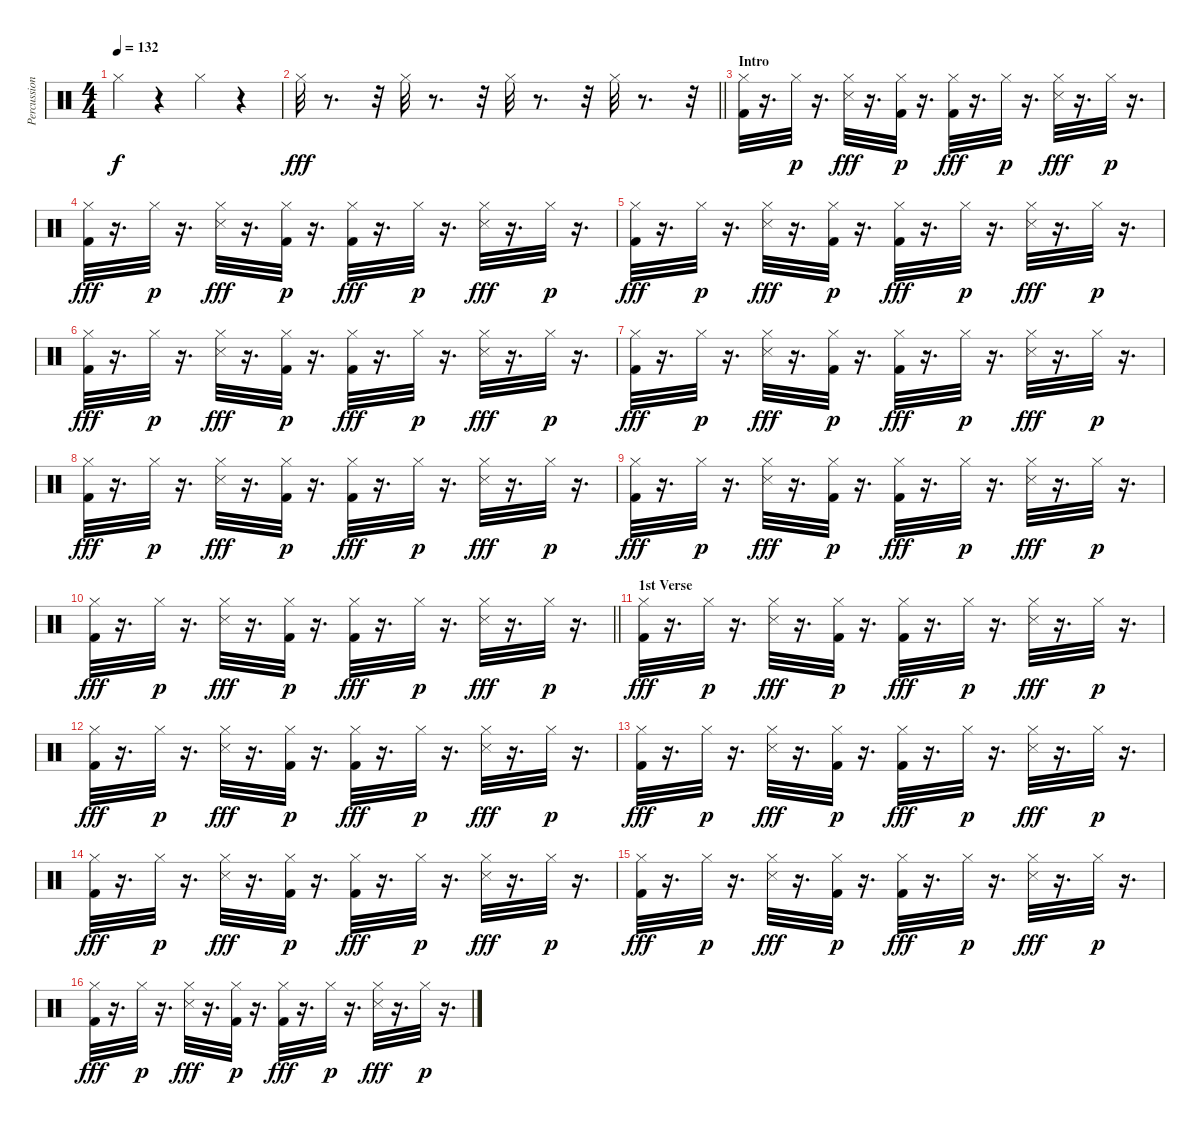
\track ("Percussion" "Percussion") {instrument percussion}
\staff {score}
\articulation defaults
\ts (4 4)
\tempo 132
\clef neutral
\ks c "Hi-Hat (closed)".4{dy f}
r.4 "Hi-Hat (closed)".4 r.4 |
\barLineRight lightlight "Hi-Hat (closed)".32{dy fff}
r.8{d} r.32 "Hi-Hat (closed)".32 r.8{d} r.32 "Hi-Hat (closed)".32 r.8{d} r.32 "Hi-Hat (closed)".32 r.8{d} r.32 |
\section ("" "Intro")
("Kick (hit) 2" "Hi-Hat (closed)").32 r.16{d} "Hi-Hat (closed)".32{dy p} r.16{d} ("Hi-Hat (closed)" "Snare (side stick) 3").32{dy fff} r.16{d} ("Kick (hit) 2" "Hi-Hat (closed)").32{dy p} r.16{d} ("Kick (hit) 2" "Hi-Hat (closed)").32{dy fff} r.16{d} "Hi-Hat (closed)".32{dy p} r.16{d} ("Snare (side stick) 3" "Hi-Hat (closed)").32{dy fff} r.16{d} "Hi-Hat (closed)".32{dy p} r.16{d} |
("Kick (hit) 2" "Hi-Hat (closed)").32{dy fff} r.16{d} "Hi-Hat (closed)".32{dy p} r.16{d} ("Hi-Hat (closed)" "Snare (side stick) 3").32{dy fff} r.16{d} ("Kick (hit) 2" "Hi-Hat (closed)").32{dy p} r.16{d} ("Kick (hit) 2" "Hi-Hat (closed)").32{dy fff} r.16{d} "Hi-Hat (closed)".32{dy p} r.16{d} ("Snare (side stick) 3" "Hi-Hat (closed)").32{dy fff} r.16{d} "Hi-Hat (closed)".32{dy p} r.16{d} |
("Kick (hit) 2" "Hi-Hat (closed)").32{dy fff} r.16{d} "Hi-Hat (closed)".32{dy p} r.16{d} ("Snare (side stick) 3" "Hi-Hat (closed)").32{dy fff} r.16{d} ("Kick (hit) 2" "Hi-Hat (closed)").32{dy p} r.16{d} ("Kick (hit) 2" "Hi-Hat (closed)").32{dy fff} r.16{d} "Hi-Hat (closed)".32{dy p} r.16{d} ("Hi-Hat (closed)" "Snare (side stick) 3").32{dy fff} r.16{d} "Hi-Hat (closed)".32{dy p} r.16{d} |
("Kick (hit) 2" "Hi-Hat (closed)").32{dy fff} r.16{d} "Hi-Hat (closed)".32{dy p} r.16{d} ("Snare (side stick) 3" "Hi-Hat (closed)").32{dy fff} r.16{d} ("Kick (hit) 2" "Hi-Hat (closed)").32{dy p} r.16{d} ("Kick (hit) 2" "Hi-Hat (closed)").32{dy fff} r.16{d} "Hi-Hat (closed)".32{dy p} r.16{d} ("Snare (side stick) 3" "Hi-Hat (closed)").32{dy fff} r.16{d} "Hi-Hat (closed)".32{dy p} r.16{d} |
("Kick (hit) 2" "Hi-Hat (closed)").32{dy fff} r.16{d} "Hi-Hat (closed)".32{dy p} r.16{d} ("Hi-Hat (closed)" "Snare (side stick) 3").32{dy fff} r.16{d} ("Kick (hit) 2" "Hi-Hat (closed)").32{dy p} r.16{d} ("Kick (hit) 2" "Hi-Hat (closed)").32{dy fff} r.16{d} "Hi-Hat (closed)".32{dy p} r.16{d} ("Hi-Hat (closed)" "Snare (side stick) 3").32{dy fff} r.16{d} "Hi-Hat (closed)".32{dy p} r.16{d} |
("Kick (hit) 2" "Hi-Hat (closed)").32{dy fff} r.16{d} "Hi-Hat (closed)".32{dy p} r.16{d} ("Snare (side stick) 3" "Hi-Hat (closed)").32{dy fff} r.16{d} ("Kick (hit) 2" "Hi-Hat (closed)").32{dy p} r.16{d} ("Kick (hit) 2" "Hi-Hat (closed)").32{dy fff} r.16{d} "Hi-Hat (closed)".32{dy p} r.16{d} ("Hi-Hat (closed)" "Snare (side stick) 3").32{dy fff} r.16{d} "Hi-Hat (closed)".32{dy p} r.16{d} |
("Kick (hit) 2" "Hi-Hat (closed)").32{dy fff} r.16{d} "Hi-Hat (closed)".32{dy p} r.16{d} ("Hi-Hat (closed)" "Snare (side stick) 3").32{dy fff} r.16{d} ("Kick (hit) 2" "Hi-Hat (closed)").32{dy p} r.16{d} ("Kick (hit) 2" "Hi-Hat (closed)").32{dy fff} r.16{d} "Hi-Hat (closed)".32{dy p} r.16{d} ("Hi-Hat (closed)" "Snare (side stick) 3").32{dy fff} r.16{d} "Hi-Hat (closed)".32{dy p} r.16{d} |
\barLineRight lightlight
("Kick (hit) 2" "Hi-Hat (closed)").32{dy fff} r.16{d} "Hi-Hat (closed)".32{dy p} r.16{d} ("Snare (side stick) 3" "Hi-Hat (closed)").32{dy fff} r.16{d} ("Kick (hit) 2" "Hi-Hat (closed)").32{dy p} r.16{d} ("Kick (hit) 2" "Hi-Hat (closed)").32{dy fff} r.16{d} "Hi-Hat (closed)".32{dy p} r.16{d} ("Hi-Hat (closed)" "Snare (side stick) 3").32{dy fff} r.16{d} "Hi-Hat (closed)".32{dy p} r.16{d} |
\section ("" "1st Verse")
("Kick (hit) 2" "Hi-Hat (closed)").32{dy fff} r.16{d} "Hi-Hat (closed)".32{dy p} r.16{d} ("Snare (side stick) 3" "Hi-Hat (closed)").32{dy fff} r.16{d} ("Kick (hit) 2" "Hi-Hat (closed)").32{dy p} r.16{d} ("Kick (hit) 2" "Hi-Hat (closed)").32{dy fff} r.16{d} "Hi-Hat (closed)".32{dy p} r.16{d} ("Snare (side stick) 3" "Hi-Hat (closed)").32{dy fff} r.16{d} "Hi-Hat (closed)".32{dy p} r.16{d} |
("Kick (hit) 2" "Hi-Hat (closed)").32{dy fff} r.16{d} "Hi-Hat (closed)".32{dy p} r.16{d} ("Snare (side stick) 3" "Hi-Hat (closed)").32{dy fff} r.16{d} ("Kick (hit) 2" "Hi-Hat (closed)").32{dy p} r.16{d} ("Kick (hit) 2" "Hi-Hat (closed)").32{dy fff} r.16{d} "Hi-Hat (closed)".32{dy p} r.16{d} ("Snare (side stick) 3" "Hi-Hat (closed)").32{dy fff} r.16{d} "Hi-Hat (closed)".32{dy p} r.16{d} |
("Kick (hit) 2" "Hi-Hat (closed)").32{dy fff} r.16{d} "Hi-Hat (closed)".32{dy p} r.16{d} ("Hi-Hat (closed)" "Snare (side stick) 3").32{dy fff} r.16{d} ("Kick (hit) 2" "Hi-Hat (closed)").32{dy p} r.16{d} ("Kick (hit) 2" "Hi-Hat (closed)").32{dy fff} r.16{d} "Hi-Hat (closed)".32{dy p} r.16{d} ("Snare (side stick) 3" "Hi-Hat (closed)").32{dy fff} r.16{d} "Hi-Hat (closed)".32{dy p} r.16{d} |
("Kick (hit) 2" "Hi-Hat (closed)").32{dy fff} r.16{d} "Hi-Hat (closed)".32{dy p} r.16{d} ("Hi-Hat (closed)" "Snare (side stick) 3").32{dy fff} r.16{d} ("Kick (hit) 2" "Hi-Hat (closed)").32{dy p} r.16{d} ("Kick (hit) 2" "Hi-Hat (closed)").32{dy fff} r.16{d} "Hi-Hat (closed)".32{dy p} r.16{d} ("Snare (side stick) 3" "Hi-Hat (closed)").32{dy fff} r.16{d} "Hi-Hat (closed)".32{dy p} r.16{d} |
("Kick (hit) 2" "Hi-Hat (closed)").32{dy fff} r.16{d} "Hi-Hat (closed)".32{dy p} r.16{d} ("Snare (side stick) 3" "Hi-Hat (closed)").32{dy fff} r.16{d} ("Kick (hit) 2" "Hi-Hat (closed)").32{dy p} r.16{d} ("Kick (hit) 2" "Hi-Hat (closed)").32{dy fff} r.16{d} "Hi-Hat (closed)".32{dy p} r.16{d} ("Snare (side stick) 3" "Hi-Hat (closed)").32{dy fff} r.16{d} "Hi-Hat (closed)".32{dy p} r.16{d} |
("Kick (hit) 2" "Hi-Hat (closed)").32{dy fff} r.16{d} "Hi-Hat (closed)".32{dy p} r.16{d} ("Snare (side stick) 3" "Hi-Hat (closed)").32{dy fff} r.16{d} ("Kick (hit) 2" "Hi-Hat (closed)").32{dy p} r.16{d} ("Kick (hit) 2" "Hi-Hat (closed)").32{dy fff} r.16{d} "Hi-Hat (closed)".32{dy p} r.16{d} ("Hi-Hat (closed)" "Snare (side stick) 3").32{dy fff} r.16{d} "Hi-Hat (closed)".32{dy p} r.16{d}
